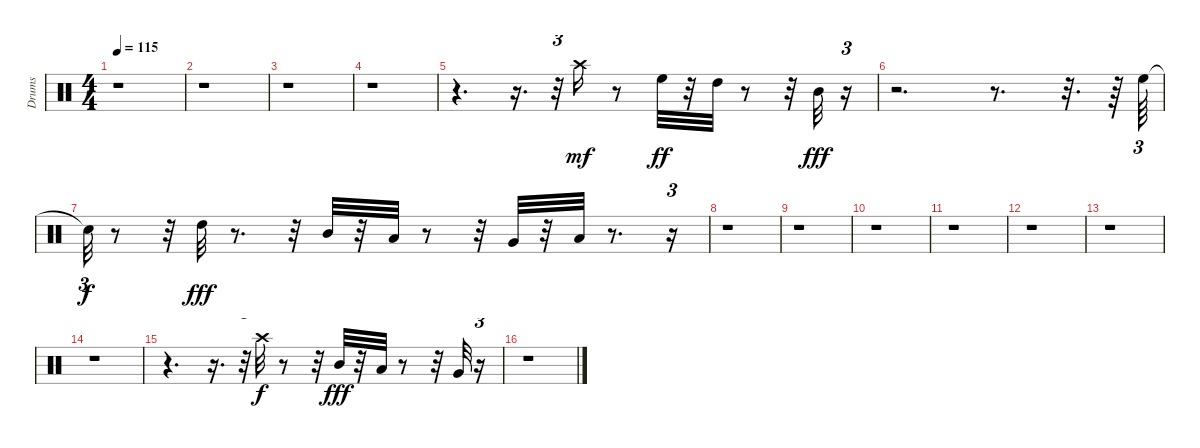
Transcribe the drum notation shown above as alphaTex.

\track ("Drums" "Drums") {instrument percussion}
\staff {score}
\articulation defaults
\ts (4 4)
\tempo 115
\clef neutral
\ks c
r.1{dy fff} |
r.1 |
r.1 |
r.1 |
r.4{d} r.16{d} r.32{tu (3 2)} "Crash high (hit)".16{dy mf} r.8 "High Floor Tom (hit)".32{dy ff} r.32 "High Tom (hit)".32 r.8 r.32 "Mid Tom (hit)".32{dy fff} r.16{tu (3 2)} |
r.2{d} r.8{d} r.32{d} r.64 "High Floor Tom (hit)".64{tu (3 2)} |
"Snare (hit)"{t}.32{tu (3 2) dy f} r.8 r.32 "High Tom (hit)".32{dy fff} r.8{d} r.32 "Mid Tom (hit)".32 r.32 "Low Tom (hit)".32 r.8 r.32 "Very Low Tom (hit)".32 r.32 "Low Floor Tom (hit)".32 r.8{d} r.16{tu (3 2)} |
r.1 |
r.1 |
r.1 |
r.1 |
r.1 |
r.1 |
r.1 |
r.4{d} r.16{d} r.32{tu (3 2)} "Crash high (hit)".32{dy f} r.8 r.32 "Mid Tom (hit)".32{dy fff} r.32 "Low Tom (hit)".32 r.8 r.32 "Very Low Tom (hit)".32 r.16{tu (3 2)} |
r.1
